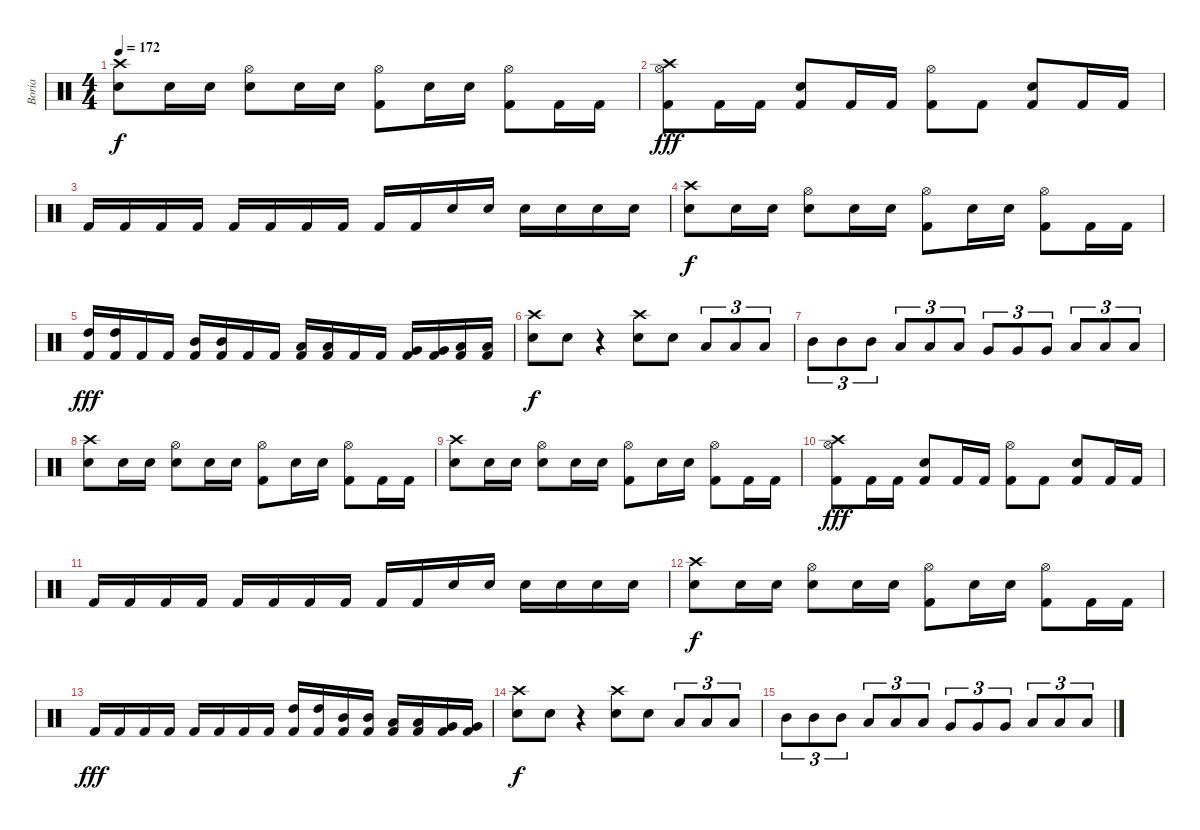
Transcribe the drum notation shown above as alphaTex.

\track ("Boria" "Boria") {instrument percussion}
\staff {score}
\articulation defaults
\ts (4 4)
\tempo 172
\clef neutral
\ks c
("Crash high (hit)" "Snare (hit) 2").8{dy f} "Snare (hit) 2".16 "Snare (hit) 2".16 ("Hi-Hat (open)" "Snare (hit) 2").8 "Snare (hit) 2".16 "Snare (hit) 2".16 ("Hi-Hat (open)" "Kick (hit) 2").8 "Snare (hit) 2".16 "Snare (hit) 2".16 ("Hi-Hat (open)" "Kick (hit) 2").8 "Kick (hit) 2".16 "Kick (hit) 2".16 |
("Crash high (hit)" "Hi-Hat (open)" "Kick (hit) 2").8{dy fff} "Kick (hit) 2".16 "Kick (hit) 2".16 ("Snare (hit) 2" "Kick (hit) 2").8 "Kick (hit) 2".16 "Kick (hit) 2".16 ("Hi-Hat (open)" "Kick (hit) 2").8 "Kick (hit) 2".8 ("Snare (hit) 2" "Kick (hit) 2").8 "Kick (hit) 2".16 "Kick (hit) 2".16 |
"Kick (hit) 2".16 "Kick (hit) 2".16 "Kick (hit) 2".16 "Kick (hit) 2".16 "Kick (hit) 2".16 "Kick (hit) 2".16 "Kick (hit) 2".16 "Kick (hit) 2".16 "Kick (hit) 2".16 "Kick (hit) 2".16 "Snare (hit) 2".16 "Snare (hit) 2".16 "Snare (hit) 2".16 "Snare (hit) 2".16 "Snare (hit) 2".16 "Snare (hit) 2".16 |
("Crash high (hit)" "Snare (hit) 2").8{dy f} "Snare (hit) 2".16 "Snare (hit) 2".16 ("Hi-Hat (open)" "Snare (hit) 2").8 "Snare (hit) 2".16 "Snare (hit) 2".16 ("Hi-Hat (open)" "Kick (hit) 2").8 "Snare (hit) 2".16 "Snare (hit) 2".16 ("Hi-Hat (open)" "Kick (hit) 2").8 "Kick (hit) 2".16 "Kick (hit) 2".16 |
("High Tom (hit)" "Kick (hit) 2").16{dy fff} ("High Tom (hit)" "Kick (hit) 2").16 "Kick (hit) 2".16 "Kick (hit) 2".16 ("Mid Tom (hit)" "Kick (hit) 2").16 ("Mid Tom (hit)" "Kick (hit) 2").16 "Kick (hit) 2".16 "Kick (hit) 2".16 ("Low Tom (hit)" "Kick (hit) 2").16 ("Low Tom (hit)" "Kick (hit) 2").16 "Kick (hit) 2".16 "Kick (hit) 2".16 ("Very Low Tom (hit)" "Kick (hit) 2").16 ("Very Low Tom (hit)" "Kick (hit) 2").16 ("Low Floor Tom (hit)" "Kick (hit) 2").16 ("Low Floor Tom (hit)" "Kick (hit) 2").16 |
("Crash high (hit)" "Snare (hit) 2").8{dy f} "Snare (hit) 2".8 r.4 ("Crash high (hit)" "Snare (hit) 2").8 "Snare (hit) 2".8 "Low Tom (hit)".8{tu (3 2)} "Low Tom (hit)".8{tu (3 2)} "Low Tom (hit)".8{tu (3 2)} |
"Mid Tom (hit)".8{tu (3 2)} "Mid Tom (hit)".8{tu (3 2)} "Mid Tom (hit)".8{tu (3 2)} "Low Tom (hit)".8{tu (3 2)} "Low Tom (hit)".8{tu (3 2)} "Low Tom (hit)".8{tu (3 2)} "Very Low Tom (hit)".8{tu (3 2)} "Very Low Tom (hit)".8{tu (3 2)} "Very Low Tom (hit)".8{tu (3 2)} "Low Floor Tom (hit)".8{tu (3 2)} "Low Floor Tom (hit)".8{tu (3 2)} "Low Floor Tom (hit)".8{tu (3 2)} |
("Crash high (hit)" "Snare (hit) 2").8 "Snare (hit) 2".16 "Snare (hit) 2".16 ("Hi-Hat (open)" "Snare (hit) 2").8 "Snare (hit) 2".16 "Snare (hit) 2".16 ("Hi-Hat (open)" "Kick (hit) 2").8 "Snare (hit) 2".16 "Snare (hit) 2".16 ("Hi-Hat (open)" "Kick (hit) 2").8 "Kick (hit) 2".16 "Kick (hit) 2".16 |
("Crash high (hit)" "Snare (hit) 2").8 "Snare (hit) 2".16 "Snare (hit) 2".16 ("Hi-Hat (open)" "Snare (hit) 2").8 "Snare (hit) 2".16 "Snare (hit) 2".16 ("Hi-Hat (open)" "Kick (hit) 2").8 "Snare (hit) 2".16 "Snare (hit) 2".16 ("Hi-Hat (open)" "Kick (hit) 2").8 "Kick (hit) 2".16 "Kick (hit) 2".16 |
("Crash high (hit)" "Hi-Hat (open)" "Kick (hit) 2").8{dy fff} "Kick (hit) 2".16 "Kick (hit) 2".16 ("Snare (hit) 2" "Kick (hit) 2").8 "Kick (hit) 2".16 "Kick (hit) 2".16 ("Hi-Hat (open)" "Kick (hit) 2").8 "Kick (hit) 2".8 ("Snare (hit) 2" "Kick (hit) 2").8 "Kick (hit) 2".16 "Kick (hit) 2".16 |
"Kick (hit) 2".16 "Kick (hit) 2".16 "Kick (hit) 2".16 "Kick (hit) 2".16 "Kick (hit) 2".16 "Kick (hit) 2".16 "Kick (hit) 2".16 "Kick (hit) 2".16 "Kick (hit) 2".16 "Kick (hit) 2".16 "Snare (hit) 2".16 "Snare (hit) 2".16 "Snare (hit) 2".16 "Snare (hit) 2".16 "Snare (hit) 2".16 "Snare (hit) 2".16 |
("Crash high (hit)" "Snare (hit) 2").8{dy f} "Snare (hit) 2".16 "Snare (hit) 2".16 ("Hi-Hat (open)" "Snare (hit) 2").8 "Snare (hit) 2".16 "Snare (hit) 2".16 ("Hi-Hat (open)" "Kick (hit) 2").8 "Snare (hit) 2".16 "Snare (hit) 2".16 ("Hi-Hat (open)" "Kick (hit) 2").8 "Kick (hit) 2".16 "Kick (hit) 2".16 |
"Kick (hit) 2".16{dy fff} "Kick (hit) 2".16 "Kick (hit) 2".16 "Kick (hit) 2".16 "Kick (hit) 2".16 "Kick (hit) 2".16 "Kick (hit) 2".16 "Kick (hit) 2".16 ("High Tom (hit)" "Kick (hit) 2").16 ("High Tom (hit)" "Kick (hit) 2").16 ("Mid Tom (hit)" "Kick (hit) 2").16 ("Mid Tom (hit)" "Kick (hit) 2").16 ("Low Tom (hit)" "Kick (hit) 2").16 ("Low Tom (hit)" "Kick (hit) 2").16 ("Very Low Tom (hit)" "Kick (hit) 2").16 ("Very Low Tom (hit)" "Kick (hit) 2").16 |
("Crash high (hit)" "Snare (hit) 2").8{dy f} "Snare (hit) 2".8 r.4 ("Crash high (hit)" "Snare (hit) 2").8 "Snare (hit) 2".8 "Low Tom (hit)".8{tu (3 2)} "Low Tom (hit)".8{tu (3 2)} "Low Tom (hit)".8{tu (3 2)} |
"Mid Tom (hit)".8{tu (3 2)} "Mid Tom (hit)".8{tu (3 2)} "Mid Tom (hit)".8{tu (3 2)} "Low Tom (hit)".8{tu (3 2)} "Low Tom (hit)".8{tu (3 2)} "Low Tom (hit)".8{tu (3 2)} "Very Low Tom (hit)".8{tu (3 2)} "Very Low Tom (hit)".8{tu (3 2)} "Very Low Tom (hit)".8{tu (3 2)} "Low Floor Tom (hit)".8{tu (3 2)} "Low Floor Tom (hit)".8{tu (3 2)} "Low Floor Tom (hit)".8{tu (3 2)}
